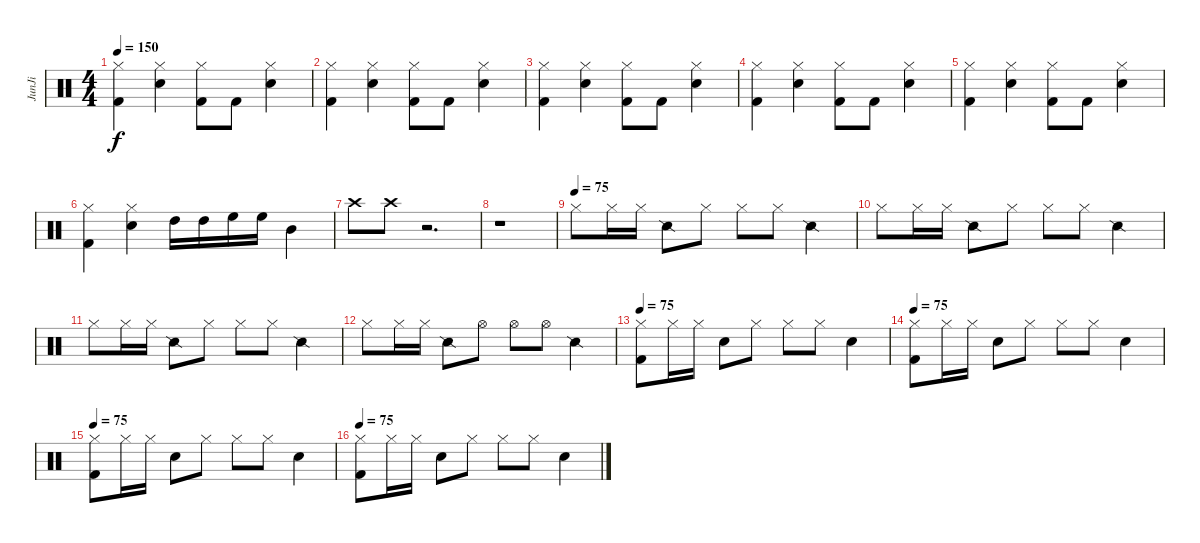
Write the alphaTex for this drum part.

\track ("JunJi" "JunJi") {instrument percussion}
\staff {score}
\articulation defaults
\ts (4 4)
\tempo 150
\clef neutral
\ks c
("Hi-Hat (closed)" "Kick (hit) 2").4{dy f} ("Electric Snare (hit)" "Hi-Hat (closed)").4 ("Hi-Hat (closed)" "Kick (hit) 2").8 "Kick (hit) 2".8 ("Electric Snare (hit)" "Hi-Hat (closed)").4 |
("Hi-Hat (closed)" "Kick (hit) 2").4 ("Electric Snare (hit)" "Hi-Hat (closed)").4 ("Hi-Hat (closed)" "Kick (hit) 2").8 "Kick (hit) 2".8 ("Electric Snare (hit)" "Hi-Hat (closed)").4 |
("Hi-Hat (closed)" "Kick (hit) 2").4 ("Electric Snare (hit)" "Hi-Hat (closed)").4 ("Hi-Hat (closed)" "Kick (hit) 2").8 "Kick (hit) 2".8 ("Electric Snare (hit)" "Hi-Hat (closed)").4 |
("Hi-Hat (closed)" "Kick (hit) 2").4 ("Electric Snare (hit)" "Hi-Hat (closed)").4 ("Hi-Hat (closed)" "Kick (hit) 2").8 "Kick (hit) 2".8 ("Electric Snare (hit)" "Hi-Hat (closed)").4 |
("Hi-Hat (closed)" "Kick (hit) 2").4 ("Electric Snare (hit)" "Hi-Hat (closed)").4 ("Hi-Hat (closed)" "Kick (hit) 2").8 "Kick (hit) 2".8 ("Electric Snare (hit)" "Hi-Hat (closed)").4 |
("Hi-Hat (closed)" "Kick (hit) 2").4 ("Electric Snare (hit)" "Hi-Hat (closed)").4 "High Tom (hit)".16 "High Tom (hit)".16 "High Floor Tom (hit)".16 "High Floor Tom (hit)".16 "Mid Tom (hit)".4 |
"Crash high (hit)".8 "Crash high (hit)".8 r.2{d} |
r.1 |
\tempo (75)
"Hi-Hat (closed)".8 "Hi-Hat (closed)".16 "Hi-Hat (closed)".16 "Snare (side stick) 2".8 "Hi-Hat (closed)".8 "Hi-Hat (closed)".8 "Hi-Hat (closed)".8 "Snare (side stick) 2".4 |
"Hi-Hat (closed)".8 "Hi-Hat (closed)".16 "Hi-Hat (closed)".16 "Snare (side stick) 2".8 "Hi-Hat (closed)".8 "Hi-Hat (closed)".8 "Hi-Hat (closed)".8 "Snare (side stick) 2".4 |
"Hi-Hat (closed)".8 "Hi-Hat (closed)".16 "Hi-Hat (closed)".16 "Snare (side stick) 2".8 "Hi-Hat (closed)".8 "Hi-Hat (closed)".8 "Hi-Hat (closed)".8 "Snare (side stick) 2".4 |
"Hi-Hat (closed)".8 "Hi-Hat (closed)".16 "Hi-Hat (closed)".16 "Snare (side stick) 2".8 "Hi-Hat (open)".8 "Hi-Hat (open)".8 "Hi-Hat (open)".8 "Snare (side stick) 2".4 |
\tempo 75
("Hi-Hat (closed)" "Kick (hit) 2").8 "Hi-Hat (closed)".16 "Hi-Hat (closed)".16 "Electric Snare (hit)".8 "Hi-Hat (closed)".8 "Hi-Hat (closed)".8 "Hi-Hat (closed)".8 "Electric Snare (hit)".4 |
\tempo 75
("Hi-Hat (closed)" "Kick (hit) 2").8 "Hi-Hat (closed)".16 "Hi-Hat (closed)".16 "Electric Snare (hit)".8 "Hi-Hat (closed)".8 "Hi-Hat (closed)".8 "Hi-Hat (closed)".8 "Electric Snare (hit)".4 |
\tempo 75
("Hi-Hat (closed)" "Kick (hit) 2").8 "Hi-Hat (closed)".16 "Hi-Hat (closed)".16 "Electric Snare (hit)".8 "Hi-Hat (closed)".8 "Hi-Hat (closed)".8 "Hi-Hat (closed)".8 "Electric Snare (hit)".4 |
\tempo 75
("Hi-Hat (closed)" "Kick (hit) 2").8 "Hi-Hat (closed)".16 "Hi-Hat (closed)".16 "Electric Snare (hit)".8 "Hi-Hat (closed)".8 "Hi-Hat (closed)".8 "Hi-Hat (closed)".8 "Electric Snare (hit)".4
